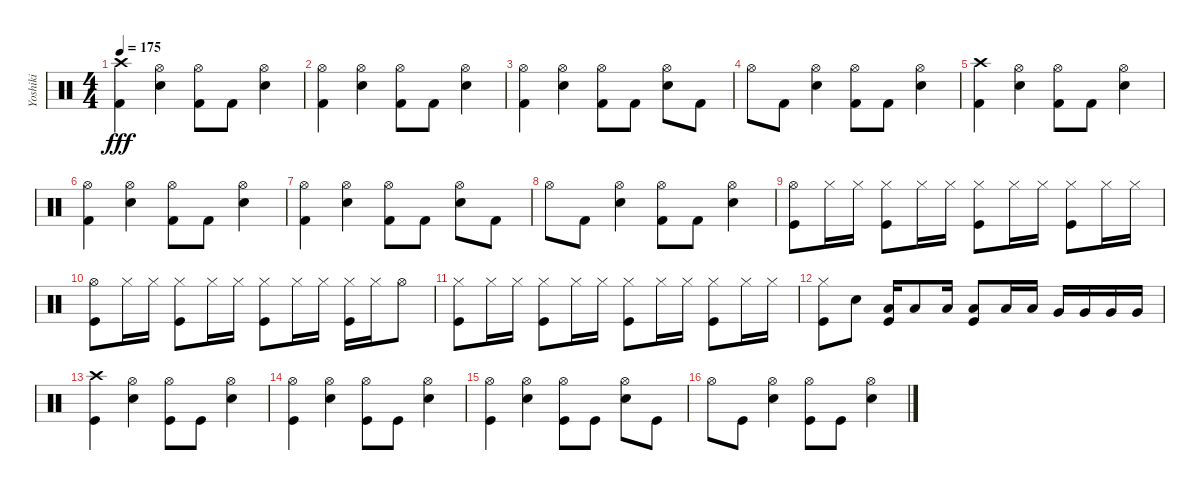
\track ("Yoshiki" "Yoshiki") {instrument percussion}
\staff {score}
\articulation defaults
\ts (4 4)
\tempo 175
\clef neutral
\ks c
("Crash high (hit)" "Kick (hit) 2").4{dy fff} ("Hi-Hat (open)" "Snare (hit) 2").4 ("Hi-Hat (open)" "Kick (hit) 2").8 "Kick (hit) 2".8 ("Hi-Hat (open)" "Snare (hit) 2").4 |
("Hi-Hat (open)" "Kick (hit) 2").4 ("Hi-Hat (open)" "Snare (hit) 2").4 ("Hi-Hat (open)" "Kick (hit) 2").8 "Kick (hit) 2".8 ("Hi-Hat (open)" "Snare (hit) 2").4 |
("Hi-Hat (open)" "Kick (hit) 2").4 ("Hi-Hat (open)" "Snare (hit) 2").4 ("Hi-Hat (open)" "Kick (hit) 2").8 "Kick (hit) 2".8 ("Hi-Hat (open)" "Snare (hit) 2").8 "Kick (hit) 2".8 |
"Hi-Hat (open)".8 "Kick (hit) 2".8 ("Hi-Hat (open)" "Snare (hit) 2").4 ("Hi-Hat (open)" "Kick (hit) 2").8 "Kick (hit) 2".8 ("Hi-Hat (open)" "Snare (hit) 2").4 |
("Crash high (hit)" "Kick (hit) 2").4 ("Hi-Hat (open)" "Snare (hit) 2").4 ("Hi-Hat (open)" "Kick (hit) 2").8 "Kick (hit) 2".8 ("Hi-Hat (open)" "Snare (hit) 2").4 |
("Hi-Hat (open)" "Kick (hit) 2").4 ("Hi-Hat (open)" "Snare (hit) 2").4 ("Hi-Hat (open)" "Kick (hit) 2").8 "Kick (hit) 2".8 ("Hi-Hat (open)" "Snare (hit) 2").4 |
("Hi-Hat (open)" "Kick (hit) 2").4 ("Hi-Hat (open)" "Snare (hit) 2").4 ("Hi-Hat (open)" "Kick (hit) 2").8 "Kick (hit) 2".8 ("Hi-Hat (open)" "Snare (hit) 2").8 "Kick (hit) 2".8 |
"Hi-Hat (open)".8 "Kick (hit) 2".8 ("Hi-Hat (open)" "Snare (hit) 2").4 ("Hi-Hat (open)" "Kick (hit) 2").8 "Kick (hit) 2".8 ("Hi-Hat (open)" "Snare (hit) 2").4 |
("Hi-Hat (open)" "Kick (hit)").8 "Hi-Hat (closed)".16 "Hi-Hat (closed)".16 ("Hi-Hat (closed)" "Kick (hit)").8 "Hi-Hat (closed)".16 "Hi-Hat (closed)".16 ("Hi-Hat (closed)" "Kick (hit)").8 "Hi-Hat (closed)".16 "Hi-Hat (closed)".16 ("Hi-Hat (closed)" "Kick (hit)").8 "Hi-Hat (closed)".16 "Hi-Hat (closed)".16 |
("Hi-Hat (open)" "Kick (hit)").8 "Hi-Hat (closed)".16 "Hi-Hat (closed)".16 ("Hi-Hat (closed)" "Kick (hit)").8 "Hi-Hat (closed)".16 "Hi-Hat (closed)".16 ("Hi-Hat (closed)" "Kick (hit)").8 "Hi-Hat (closed)".16 "Hi-Hat (closed)".16 ("Hi-Hat (closed)" "Kick (hit)").16 "Hi-Hat (closed)".16 "Hi-Hat (open)".8 |
("Hi-Hat (closed)" "Kick (hit)").8 "Hi-Hat (closed)".16 "Hi-Hat (closed)".16 ("Hi-Hat (closed)" "Kick (hit)").8 "Hi-Hat (closed)".16 "Hi-Hat (closed)".16 ("Hi-Hat (closed)" "Kick (hit)").8 "Hi-Hat (closed)".16 "Hi-Hat (closed)".16 ("Hi-Hat (closed)" "Kick (hit)").8 "Hi-Hat (closed)".16 "Hi-Hat (closed)".16 |
("Hi-Hat (closed)" "Kick (hit)").8 "Snare (hit) 2".8 ("Low Tom (hit)" "Kick (hit)").16 "Low Tom (hit)".8 "Low Tom (hit)".16 ("Low Tom (hit)" "Kick (hit)").8 "Low Tom (hit)".16 "Low Tom (hit)".16 "Very Low Tom (hit)".16 "Very Low Tom (hit)".16 "Very Low Tom (hit)".16 "Very Low Tom (hit)".16 |
("Crash high (hit)" "Kick (hit)").4 ("Hi-Hat (open)" "Electric Snare (hit)").4 ("Hi-Hat (open)" "Kick (hit)").8 "Kick (hit)".8 ("Hi-Hat (open)" "Electric Snare (hit)").4 |
("Hi-Hat (open)" "Kick (hit)").4 ("Hi-Hat (open)" "Snare (hit) 2").4 ("Hi-Hat (open)" "Kick (hit)").8 "Kick (hit)".8 ("Hi-Hat (open)" "Snare (hit) 2").4 |
("Hi-Hat (open)" "Kick (hit)").4 ("Hi-Hat (open)" "Snare (hit) 2").4 ("Hi-Hat (open)" "Kick (hit)").8 "Kick (hit)".8 ("Hi-Hat (open)" "Snare (hit) 2").8 "Kick (hit)".8 |
"Hi-Hat (open)".8 "Kick (hit)".8 ("Hi-Hat (open)" "Snare (hit) 2").4 ("Hi-Hat (open)" "Kick (hit)").8 "Kick (hit)".8 ("Hi-Hat (open)" "Snare (hit) 2").4
